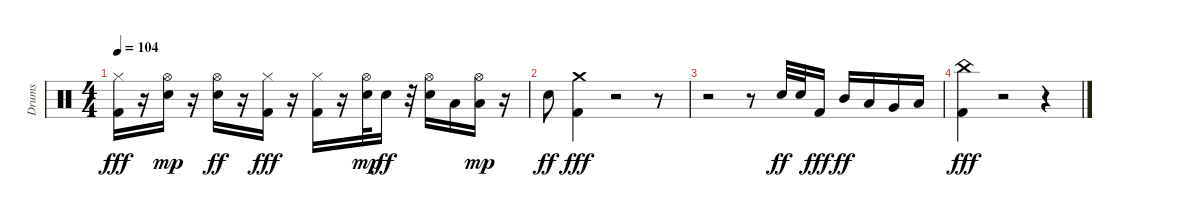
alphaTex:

\track ("Drums" "Drums") {instrument percussion}
\staff {score}
\articulation defaults
\ts (4 4)
\tempo 104
\clef neutral
\ks c
("Hi-Hat (closed)" "Kick (hit) 2").16{dy fff} r.16 ("Snare (hit) 2" "Hi-Hat (open)").16{dy mp} r.16 ("Hi-Hat (open)" "Snare (hit) 2").16{dy ff} r.16 ("Hi-Hat (closed)" "Kick (hit) 2").16{dy fff} r.16 ("Hi-Hat (closed)" "Kick (hit) 2").16 r.16 ("Snare (hit) 2" "Hi-Hat (open)").32{dy mp} "Snare (hit) 2".16{dy ff} r.32 ("Hi-Hat (open)" "Snare (hit) 2").16 "Low Tom (hit)".16 ("Low Floor Tom (hit)" "Hi-Hat (open)").16{dy mp} r.16 |
"Snare (hit) 2".8{dy ff} ("Crash medium (hit)" "Kick (hit) 2").4{dy fff} r.2 r.8 |
r.2 r.8 "Snare (hit) 2".32{dy ff} "Snare (hit) 2".32 "Kick (hit) 2".16{dy fff} "Mid Tom (hit)".16{dy ff} "Low Tom (hit)".16 "Very Low Tom (hit)".16 "Low Floor Tom (hit)".16 |
("China (hit)" "Kick (hit) 2").4{dy fff} r.2 r.4
